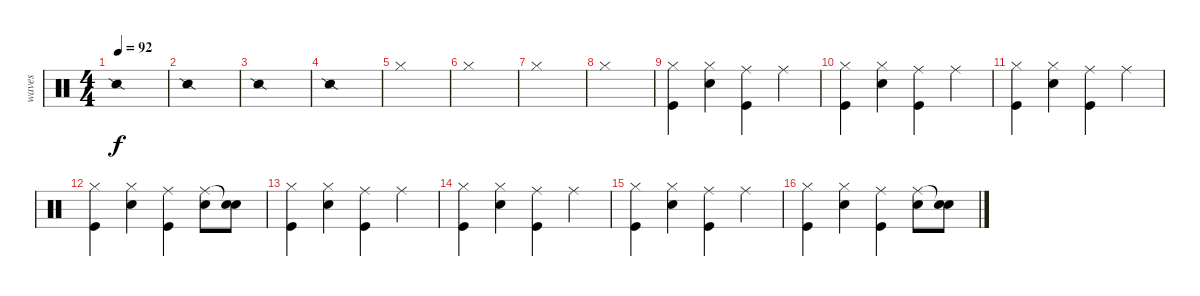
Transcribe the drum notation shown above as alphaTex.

\track ("waves" "waves") {instrument percussion}
\staff {score}
\articulation defaults
\ts (4 4)
\tempo 92
\clef neutral
\ks c "Snare (side stick) 2".1{dy f volume 8}
|
"Snare (side stick) 2".1 |
"Snare (side stick) 2".1 |
"Snare (side stick) 2".1 |
"Hi-Hat (closed)".1{volume 10} |
"Hi-Hat (closed)".1 |
"Hi-Hat (closed)".1 |
"Hi-Hat (closed)".1 |
("Hi-Hat (closed)" "Kick (hit)").4{volume 13} ("Hi-Hat (closed)" "Electric Snare (hit)").4 ("Ride (middle)" "Kick (hit)").4 "Ride (middle)".4 |
("Hi-Hat (closed)" "Kick (hit)").4 ("Hi-Hat (closed)" "Electric Snare (hit)").4 ("Ride (middle)" "Kick (hit)").4 "Ride (middle)".4 |
("Hi-Hat (closed)" "Kick (hit)").4 ("Hi-Hat (closed)" "Electric Snare (hit)").4 ("Ride (middle)" "Kick (hit)").4 "Ride (middle)".4 |
("Hi-Hat (closed)" "Kick (hit)").4 ("Hi-Hat (closed)" "Electric Snare (hit)").4 ("Ride (middle)" "Kick (hit)").4 ("Ride (middle)" "Electric Snare (hit)").8 ("Snare (hit)"{t} "Electric Snare (hit)").8 |
("Hi-Hat (closed)" "Kick (hit)").4{volume 13} ("Hi-Hat (closed)" "Electric Snare (hit)").4 ("Ride (middle)" "Kick (hit)").4 "Ride (middle)".4 |
("Hi-Hat (closed)" "Kick (hit)").4 ("Hi-Hat (closed)" "Electric Snare (hit)").4 ("Ride (middle)" "Kick (hit)").4 "Ride (middle)".4 |
("Hi-Hat (closed)" "Kick (hit)").4 ("Hi-Hat (closed)" "Electric Snare (hit)").4 ("Ride (middle)" "Kick (hit)").4 "Ride (middle)".4 |
("Hi-Hat (closed)" "Kick (hit)").4 ("Hi-Hat (closed)" "Electric Snare (hit)").4 ("Ride (middle)" "Kick (hit)").4 ("Ride (middle)" "Electric Snare (hit)").8 ("Snare (hit)"{t} "Electric Snare (hit)").8
